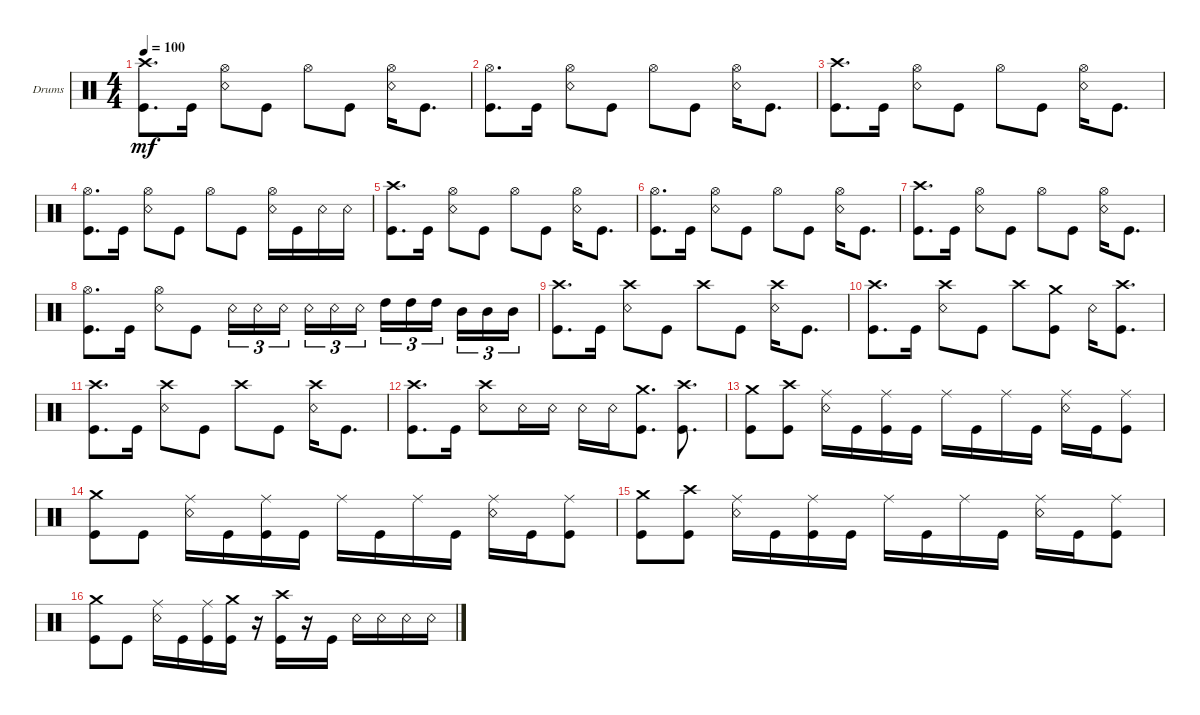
\defaultSystemsLayout 4
\bracketExtendMode groupsimilarinstruments
\firstSystemTrackNameOrientation horizontal
\otherSystemsTrackNameOrientation horizontal
\track ("Drumkit" "Drums") {instrument percussion}
\staff {score}
\articulation defaults
\ts (4 4)
\tempo 100
\clef neutral
\ks c
("Kick (hit)" "Crash high (hit)").8{d dy mf} "Kick (hit)".16 ("Snare (rim shot)" "Hi-Hat (open)").8 "Kick (hit)".8 "Hi-Hat (open)".8 "Kick (hit)".8 ("Snare (rim shot)" "Hi-Hat (open)").16 "Kick (hit)".8{d} |
("Kick (hit)" "Hi-Hat (open)").8{d} "Kick (hit)".16 ("Snare (rim shot)" "Hi-Hat (open)").8 "Kick (hit)".8 "Hi-Hat (open)".8 "Kick (hit)".8 ("Snare (rim shot)" "Hi-Hat (open)").16 "Kick (hit)".8{d} |
("Kick (hit)" "Crash high (hit)").8{d} "Kick (hit)".16 ("Snare (rim shot)" "Hi-Hat (open)").8 "Kick (hit)".8 "Hi-Hat (open)".8 "Kick (hit)".8 ("Snare (rim shot)" "Hi-Hat (open)").16 "Kick (hit)".8{d} |
("Kick (hit)" "Hi-Hat (open)").8{d} "Kick (hit)".16 ("Snare (rim shot)" "Hi-Hat (open)").8 "Kick (hit)".8 "Hi-Hat (open)".8 "Kick (hit)".8 ("Snare (rim shot)" "Hi-Hat (open)").16 "Kick (hit)".16 "Snare (rim shot)".16 "Snare (rim shot)".16 |
("Kick (hit)" "Crash high (hit)").8{d} "Kick (hit)".16 ("Snare (rim shot)" "Hi-Hat (open)").8 "Kick (hit)".8 "Hi-Hat (open)".8 "Kick (hit)".8 ("Snare (rim shot)" "Hi-Hat (open)").16 "Kick (hit)".8{d} |
("Kick (hit)" "Hi-Hat (open)").8{d} "Kick (hit)".16 ("Snare (rim shot)" "Hi-Hat (open)").8 "Kick (hit)".8 "Hi-Hat (open)".8 "Kick (hit)".8 ("Snare (rim shot)" "Hi-Hat (open)").16 "Kick (hit)".8{d} |
("Kick (hit)" "Crash high (hit)").8{d} "Kick (hit)".16 ("Snare (rim shot)" "Hi-Hat (open)").8 "Kick (hit)".8 "Hi-Hat (open)".8 "Kick (hit)".8 ("Snare (rim shot)" "Hi-Hat (open)").16 "Kick (hit)".8{d} |
("Kick (hit)" "Hi-Hat (open)").8{d} "Kick (hit)".16 ("Snare (rim shot)" "Hi-Hat (open)").8 "Kick (hit)".8 "Snare (rim shot)".16{tu (3 2)} "Snare (rim shot)".16{tu (3 2)} "Snare (rim shot)".16{tu (3 2)} "Snare (rim shot)".16{tu (3 2)} "Snare (rim shot)".16{tu (3 2)} "Snare (rim shot)".16{tu (3 2)} "High Tom (hit)".16{tu (3 2)} "High Tom (hit)".16{tu (3 2)} "High Tom (hit)".16{tu (3 2)} "Mid Tom (hit)".16{tu (3 2)} "Mid Tom (hit)".16{tu (3 2)} "Mid Tom (hit)".16{tu (3 2)} |
("Kick (hit)" "Crash high (hit)").8{d} "Kick (hit)".16 ("Snare (rim shot)" "Crash high (hit)").8 "Kick (hit)".8 "Crash high (hit)".8 "Kick (hit)".8 ("Snare (rim shot)" "Crash high (hit)").16 "Kick (hit)".8{d} |
("Kick (hit)" "Crash high (hit)").8{d} "Kick (hit)".16 ("Snare (rim shot)" "Crash high (hit)").8 "Kick (hit)".8 "Crash high (hit)".8 ("Kick (hit)" "Crash medium (hit)").8 "Snare (rim shot)".16 ("Kick (hit)" "Crash high (hit)").8{d} |
("Kick (hit)" "Crash high (hit)").8{d} "Kick (hit)".16 ("Snare (rim shot)" "Crash high (hit)").8 "Kick (hit)".8 "Crash high (hit)".8 "Kick (hit)".8 ("Snare (rim shot)" "Crash high (hit)").16 "Kick (hit)".8{d} |
("Kick (hit)" "Crash high (hit)").8{d} "Kick (hit)".16 ("Snare (rim shot)" "Crash high (hit)").8 "Snare (rim shot)".16 "Snare (rim shot)".16 "Snare (rim shot)".16 "Snare (rim shot)".16 ("Kick (hit)" "Crash medium (hit)").8{d} ("Kick (hit)" "Crash high (hit)").8{d} |
("Kick (hit)" "Crash medium (hit)").8 ("Kick (hit)" "Crash high (hit)").8 ("Snare (rim shot)" "Ride (middle)").16 "Kick (hit)".16 ("Kick (hit)" "Ride (middle)").16 "Kick (hit)".16 "Ride (middle)".16 "Kick (hit)".16 "Ride (middle)".16 "Kick (hit)".16 ("Snare (rim shot)" "Ride (middle)").16 "Kick (hit)".16 ("Kick (hit)" "Ride (middle)").8 |
("Kick (hit)" "Crash medium (hit)").8 "Kick (hit)".8 ("Snare (rim shot)" "Ride (middle)").16 "Kick (hit)".16 ("Kick (hit)" "Ride (middle)").16 "Kick (hit)".16 "Ride (middle)".16 "Kick (hit)".16 "Ride (middle)".16 "Kick (hit)".16 ("Snare (rim shot)" "Ride (middle)").16 "Kick (hit)".16 ("Kick (hit)" "Ride (middle)").8 |
("Kick (hit)" "Crash medium (hit)").8 ("Kick (hit)" "Crash high (hit)").8 ("Snare (rim shot)" "Ride (middle)").16 "Kick (hit)".16 ("Kick (hit)" "Ride (middle)").16 "Kick (hit)".16 "Ride (middle)".16 "Kick (hit)".16 "Ride (middle)".16 "Kick (hit)".16 ("Snare (rim shot)" "Ride (middle)").16 "Kick (hit)".16 ("Kick (hit)" "Ride (middle)").8 |
("Kick (hit)" "Crash medium (hit)").8 "Kick (hit)".8 ("Snare (rim shot)" "Ride (middle)").16 "Kick (hit)".16 ("Kick (hit)" "Ride (middle)").16 ("Kick (hit)" "Crash medium (hit)").16 r.16 ("Kick (hit)" "Crash high (hit)").16 r.16 "Kick (hit)".16 "Snare (rim shot)".16 "Snare (rim shot)".16 "Snare (rim shot)".16 "Snare (rim shot)".16
